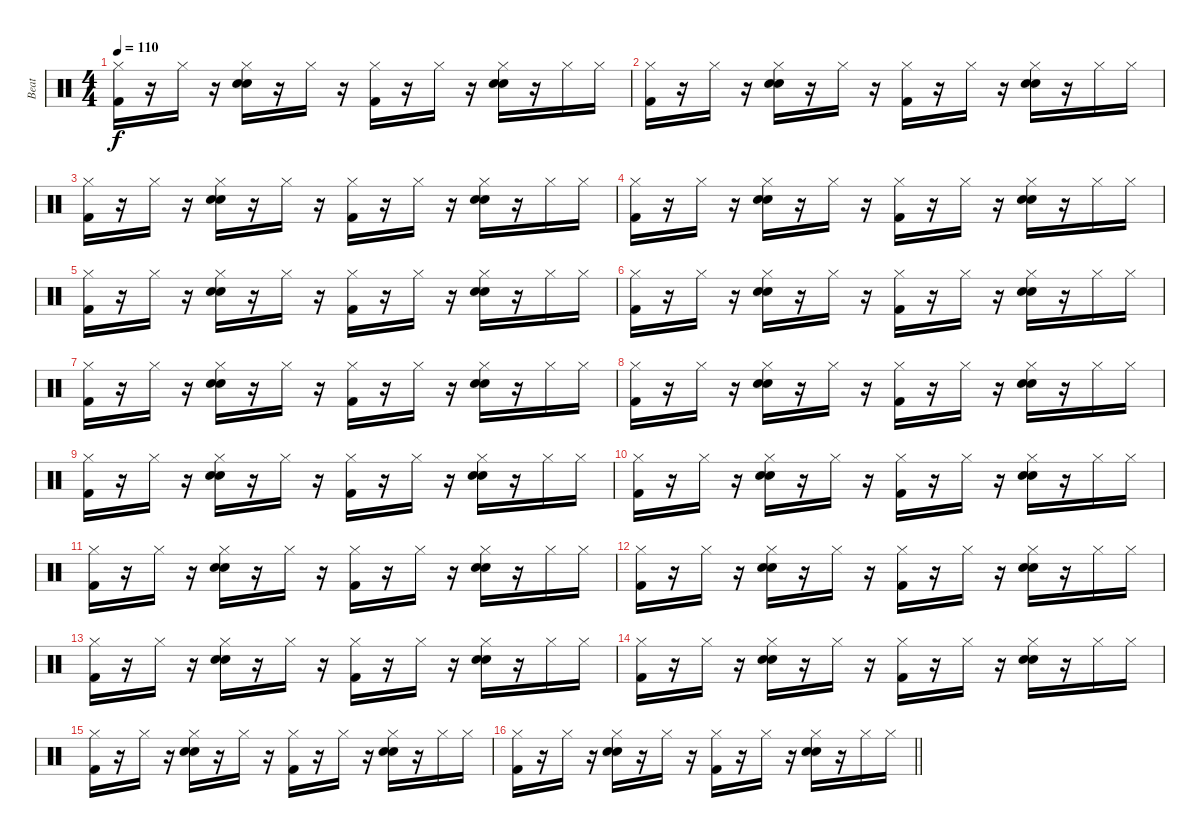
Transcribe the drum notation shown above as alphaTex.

\track ("Beat" "Beat") {instrument percussion}
\staff {score}
\articulation defaults
\ts (4 4)
\tempo 110
\clef neutral
\ks c
("Hi-Hat (closed)" "Kick (hit) 2").16{dy f} r.16 "Hi-Hat (closed)".16 r.16 ("Hi-Hat (closed)" "Electric Snare (hit)" "Hand Clap (hit)").16 r.16 "Hi-Hat (closed)".16 r.16 ("Hi-Hat (closed)" "Kick (hit) 2").16 r.16 "Hi-Hat (closed)".16 r.16 ("Hi-Hat (closed)" "Electric Snare (hit)" "Hand Clap (hit)").16 r.16 "Hi-Hat (closed)".16 "Hi-Hat (closed)".16 |
("Hi-Hat (closed)" "Kick (hit) 2").16 r.16 "Hi-Hat (closed)".16 r.16 ("Hi-Hat (closed)" "Electric Snare (hit)" "Hand Clap (hit)").16 r.16 "Hi-Hat (closed)".16 r.16 ("Hi-Hat (closed)" "Kick (hit) 2").16 r.16 "Hi-Hat (closed)".16 r.16 ("Hi-Hat (closed)" "Electric Snare (hit)" "Hand Clap (hit)").16 r.16 "Hi-Hat (closed)".16 "Hi-Hat (closed)".16 |
("Hi-Hat (closed)" "Kick (hit) 2").16 r.16 "Hi-Hat (closed)".16 r.16 ("Hi-Hat (closed)" "Electric Snare (hit)" "Hand Clap (hit)").16 r.16 "Hi-Hat (closed)".16 r.16 ("Hi-Hat (closed)" "Kick (hit) 2").16 r.16 "Hi-Hat (closed)".16 r.16 ("Hi-Hat (closed)" "Electric Snare (hit)" "Hand Clap (hit)").16 r.16 "Hi-Hat (closed)".16 "Hi-Hat (closed)".16 |
("Hi-Hat (closed)" "Kick (hit) 2").16 r.16 "Hi-Hat (closed)".16 r.16 ("Hi-Hat (closed)" "Electric Snare (hit)" "Hand Clap (hit)").16 r.16 "Hi-Hat (closed)".16 r.16 ("Hi-Hat (closed)" "Kick (hit) 2").16 r.16 "Hi-Hat (closed)".16 r.16 ("Hi-Hat (closed)" "Electric Snare (hit)" "Hand Clap (hit)").16 r.16 "Hi-Hat (closed)".16 "Hi-Hat (closed)".16 |
("Hi-Hat (closed)" "Kick (hit) 2").16 r.16 "Hi-Hat (closed)".16 r.16 ("Hi-Hat (closed)" "Electric Snare (hit)" "Hand Clap (hit)").16 r.16 "Hi-Hat (closed)".16 r.16 ("Hi-Hat (closed)" "Kick (hit) 2").16 r.16 "Hi-Hat (closed)".16 r.16 ("Hi-Hat (closed)" "Electric Snare (hit)" "Hand Clap (hit)").16 r.16 "Hi-Hat (closed)".16 "Hi-Hat (closed)".16 |
("Hi-Hat (closed)" "Kick (hit) 2").16 r.16 "Hi-Hat (closed)".16 r.16 ("Hi-Hat (closed)" "Electric Snare (hit)" "Hand Clap (hit)").16 r.16 "Hi-Hat (closed)".16 r.16 ("Hi-Hat (closed)" "Kick (hit) 2").16 r.16 "Hi-Hat (closed)".16 r.16 ("Hi-Hat (closed)" "Electric Snare (hit)" "Hand Clap (hit)").16 r.16 "Hi-Hat (closed)".16 "Hi-Hat (closed)".16 |
("Hi-Hat (closed)" "Kick (hit) 2").16 r.16 "Hi-Hat (closed)".16 r.16 ("Hi-Hat (closed)" "Electric Snare (hit)" "Hand Clap (hit)").16 r.16 "Hi-Hat (closed)".16 r.16 ("Hi-Hat (closed)" "Kick (hit) 2").16 r.16 "Hi-Hat (closed)".16 r.16 ("Hi-Hat (closed)" "Electric Snare (hit)" "Hand Clap (hit)").16 r.16 "Hi-Hat (closed)".16 "Hi-Hat (closed)".16 |
("Hi-Hat (closed)" "Kick (hit) 2").16 r.16 "Hi-Hat (closed)".16 r.16 ("Hi-Hat (closed)" "Electric Snare (hit)" "Hand Clap (hit)").16 r.16 "Hi-Hat (closed)".16 r.16 ("Hi-Hat (closed)" "Kick (hit) 2").16 r.16 "Hi-Hat (closed)".16 r.16 ("Hi-Hat (closed)" "Electric Snare (hit)" "Hand Clap (hit)").16 r.16 "Hi-Hat (closed)".16 "Hi-Hat (closed)".16 |
("Hi-Hat (closed)" "Kick (hit) 2").16 r.16 "Hi-Hat (closed)".16 r.16 ("Hi-Hat (closed)" "Electric Snare (hit)" "Hand Clap (hit)").16 r.16 "Hi-Hat (closed)".16 r.16 ("Hi-Hat (closed)" "Kick (hit) 2").16 r.16 "Hi-Hat (closed)".16 r.16 ("Hi-Hat (closed)" "Electric Snare (hit)" "Hand Clap (hit)").16 r.16 "Hi-Hat (closed)".16 "Hi-Hat (closed)".16 |
("Hi-Hat (closed)" "Kick (hit) 2").16 r.16 "Hi-Hat (closed)".16 r.16 ("Hi-Hat (closed)" "Electric Snare (hit)" "Hand Clap (hit)").16 r.16 "Hi-Hat (closed)".16 r.16 ("Hi-Hat (closed)" "Kick (hit) 2").16 r.16 "Hi-Hat (closed)".16 r.16 ("Hi-Hat (closed)" "Electric Snare (hit)" "Hand Clap (hit)").16 r.16 "Hi-Hat (closed)".16 "Hi-Hat (closed)".16 |
("Hi-Hat (closed)" "Kick (hit) 2").16 r.16 "Hi-Hat (closed)".16 r.16 ("Hi-Hat (closed)" "Electric Snare (hit)" "Hand Clap (hit)").16 r.16 "Hi-Hat (closed)".16 r.16 ("Hi-Hat (closed)" "Kick (hit) 2").16 r.16 "Hi-Hat (closed)".16 r.16 ("Hi-Hat (closed)" "Electric Snare (hit)" "Hand Clap (hit)").16 r.16 "Hi-Hat (closed)".16 "Hi-Hat (closed)".16 |
("Hi-Hat (closed)" "Kick (hit) 2").16 r.16 "Hi-Hat (closed)".16 r.16 ("Hi-Hat (closed)" "Electric Snare (hit)" "Hand Clap (hit)").16 r.16 "Hi-Hat (closed)".16 r.16 ("Hi-Hat (closed)" "Kick (hit) 2").16 r.16 "Hi-Hat (closed)".16 r.16 ("Hi-Hat (closed)" "Electric Snare (hit)" "Hand Clap (hit)").16 r.16 "Hi-Hat (closed)".16 "Hi-Hat (closed)".16 |
("Hi-Hat (closed)" "Kick (hit) 2").16 r.16 "Hi-Hat (closed)".16 r.16 ("Hi-Hat (closed)" "Electric Snare (hit)" "Hand Clap (hit)").16 r.16 "Hi-Hat (closed)".16 r.16 ("Hi-Hat (closed)" "Kick (hit) 2").16 r.16 "Hi-Hat (closed)".16 r.16 ("Hi-Hat (closed)" "Electric Snare (hit)" "Hand Clap (hit)").16 r.16 "Hi-Hat (closed)".16 "Hi-Hat (closed)".16 |
("Hi-Hat (closed)" "Kick (hit) 2").16 r.16 "Hi-Hat (closed)".16 r.16 ("Hi-Hat (closed)" "Electric Snare (hit)" "Hand Clap (hit)").16 r.16 "Hi-Hat (closed)".16 r.16 ("Hi-Hat (closed)" "Kick (hit) 2").16 r.16 "Hi-Hat (closed)".16 r.16 ("Hi-Hat (closed)" "Electric Snare (hit)" "Hand Clap (hit)").16 r.16 "Hi-Hat (closed)".16 "Hi-Hat (closed)".16 |
("Hi-Hat (closed)" "Kick (hit) 2").16 r.16 "Hi-Hat (closed)".16 r.16 ("Hi-Hat (closed)" "Electric Snare (hit)" "Hand Clap (hit)").16 r.16 "Hi-Hat (closed)".16 r.16 ("Hi-Hat (closed)" "Kick (hit) 2").16 r.16 "Hi-Hat (closed)".16 r.16 ("Hi-Hat (closed)" "Electric Snare (hit)" "Hand Clap (hit)").16 r.16 "Hi-Hat (closed)".16 "Hi-Hat (closed)".16 |
\barLineRight lightlight
("Hi-Hat (closed)" "Kick (hit) 2").16 r.16 "Hi-Hat (closed)".16 r.16 ("Hi-Hat (closed)" "Electric Snare (hit)" "Hand Clap (hit)").16 r.16 "Hi-Hat (closed)".16 r.16 ("Hi-Hat (closed)" "Kick (hit) 2").16 r.16 "Hi-Hat (closed)".16 r.16 ("Hi-Hat (closed)" "Electric Snare (hit)" "Hand Clap (hit)").16 r.16 "Hi-Hat (closed)".16 "Hi-Hat (closed)".16
